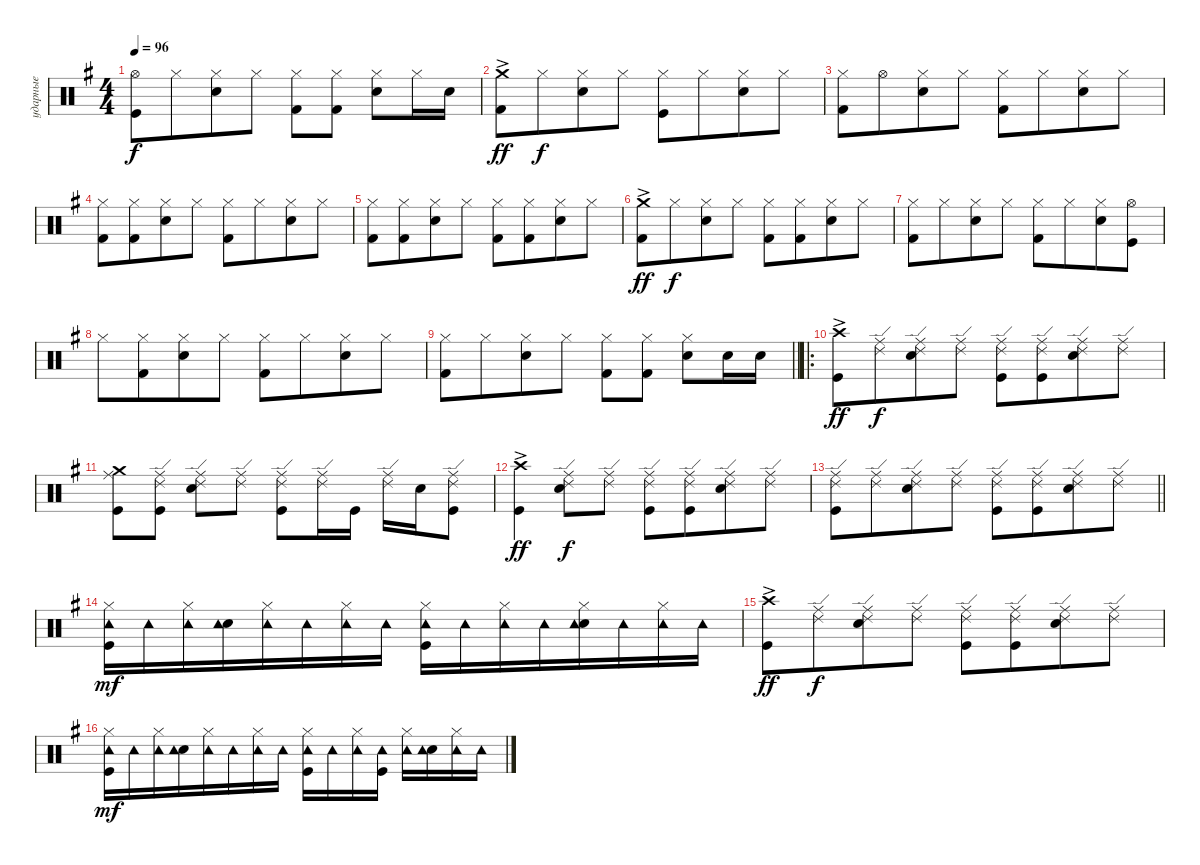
\track ("ударные" "ударные") {instrument percussion}
\staff {score}
\articulation defaults
\ts (4 4)
\tempo 96
\clef neutral
\ks eminor
("Kick (hit)" "Hi-Hat (open)").8{dy f} "Hi-Hat (closed)".8{beam merge} ("Hi-Hat (closed)" "Snare (hit) 2").8 "Hi-Hat (closed)".8 ("Hi-Hat (closed)" "Kick (hit) 2").8 ("Hi-Hat (closed)" "Kick (hit) 2").8 ("Hi-Hat (closed)" "Snare (hit) 2").8 "Hi-Hat (closed)".16 "Snare (hit) 2".16 |
("Crash medium (hit)"{ac} "Kick (hit) 2").8{dy ff} "Hi-Hat (closed)".8{dy f beam merge} ("Hi-Hat (closed)" "Snare (hit) 2").8 "Hi-Hat (closed)".8 ("Kick (hit)" "Hi-Hat (closed)").8 "Hi-Hat (closed)".8{beam merge} ("Snare (hit) 2" "Hi-Hat (closed)").8 "Hi-Hat (closed)".8 |
("Hi-Hat (closed)" "Kick (hit) 2").8 "Hi-Hat (open)".8{beam merge} ("Hi-Hat (closed)" "Snare (hit) 2").8 "Hi-Hat (closed)".8 ("Hi-Hat (closed)" "Kick (hit) 2").8 "Hi-Hat (closed)".8{beam merge} ("Hi-Hat (closed)" "Snare (hit) 2").8 "Hi-Hat (closed)".8 |
("Hi-Hat (closed)" "Kick (hit) 2").8 ("Hi-Hat (closed)" "Kick (hit) 2").8{beam merge} ("Hi-Hat (closed)" "Snare (hit) 2").8 "Hi-Hat (closed)".8 ("Hi-Hat (closed)" "Kick (hit) 2").8 "Hi-Hat (closed)".8{beam merge} ("Hi-Hat (closed)" "Snare (hit) 2").8 "Hi-Hat (closed)".8 |
("Hi-Hat (closed)" "Kick (hit) 2").8 ("Hi-Hat (closed)" "Kick (hit) 2").8{beam merge} ("Hi-Hat (closed)" "Snare (hit) 2").8 "Hi-Hat (closed)".8 ("Hi-Hat (closed)" "Kick (hit) 2").8 ("Hi-Hat (closed)" "Kick (hit) 2").8{beam merge} ("Hi-Hat (closed)" "Snare (hit) 2").8 "Hi-Hat (closed)".8 |
("Crash medium (hit)"{ac} "Kick (hit) 2").8{dy ff} "Hi-Hat (closed)".8{dy f beam merge} ("Hi-Hat (closed)" "Snare (hit) 2").8 "Hi-Hat (closed)".8 ("Hi-Hat (closed)" "Kick (hit) 2").8 ("Hi-Hat (closed)" "Kick (hit) 2").8{beam merge} ("Hi-Hat (closed)" "Snare (hit) 2").8 "Hi-Hat (closed)".8 |
("Hi-Hat (closed)" "Kick (hit) 2").8 "Hi-Hat (closed)".8{beam merge} ("Hi-Hat (closed)" "Snare (hit) 2").8 "Hi-Hat (closed)".8 ("Hi-Hat (closed)" "Kick (hit) 2").8 "Hi-Hat (closed)".8{beam merge} ("Hi-Hat (closed)" "Snare (hit) 2").8 ("Kick (hit)" "Hi-Hat (open)").8 |
"Hi-Hat (closed)".8 ("Hi-Hat (closed)" "Kick (hit) 2").8{beam merge} ("Hi-Hat (closed)" "Snare (hit) 2").8 "Hi-Hat (closed)".8 ("Hi-Hat (closed)" "Kick (hit) 2").8 "Hi-Hat (closed)".8{beam merge} ("Hi-Hat (closed)" "Snare (hit) 2").8 "Hi-Hat (closed)".8 |
\barLineRight lightlight
("Hi-Hat (closed)" "Kick (hit) 2").8 "Hi-Hat (closed)".8{beam merge} ("Hi-Hat (closed)" "Snare (hit) 2").8 "Hi-Hat (closed)".8 ("Hi-Hat (closed)" "Kick (hit) 2").8 ("Hi-Hat (closed)" "Kick (hit) 2").8 ("Hi-Hat (closed)" "Snare (hit) 2").8 "Snare (hit) 2".16 "Snare (hit) 2".16 |
\ro
\section ("" "")
("Kick (hit)" "Crash high (hit)"{ac}).8{dy ff} ("Ride (middle)" "Ride (edge) 2").8{dy f beam merge} ("Snare (hit) 2" "Ride (middle)" "Ride (edge) 2").8 ("Ride (middle)" "Ride (edge) 2").8 ("Kick (hit)" "Ride (middle)" "Ride (edge) 2").8 ("Kick (hit)" "Ride (middle)" "Ride (edge) 2").8{beam merge} ("Snare (hit) 2" "Ride (middle)" "Ride (edge) 2").8 ("Ride (middle)" "Ride (edge) 2").8 |
("Kick (hit)" "Crash medium (hit)" "Ride (middle)").8 ("Kick (hit)" "Ride (middle)" "Ride (edge) 2").8 ("Snare (hit) 2" "Ride (middle)" "Ride (edge) 2").8 ("Ride (middle)" "Ride (edge) 2").8 ("Kick (hit)" "Ride (middle)" "Ride (edge) 2").8 ("Ride (middle)" "Ride (edge) 2").16 "Kick (hit)".16 ("Ride (middle)" "Ride (edge) 2").16 "Snare (hit) 2".16 ("Kick (hit)" "Ride (middle)" "Ride (edge) 2").8 |
("Kick (hit)" "Crash high (hit)"{ac}).4{dy ff} ("Snare (hit) 2" "Ride (middle)" "Ride (edge) 2").8{dy f} ("Ride (middle)" "Ride (edge) 2").8 ("Kick (hit)" "Ride (middle)" "Ride (edge) 2").8 ("Kick (hit)" "Ride (middle)" "Ride (edge) 2").8{beam merge} ("Snare (hit) 2" "Ride (middle)" "Ride (edge) 2").8 ("Ride (middle)" "Ride (edge) 2").8 |
\barLineRight lightlight
("Kick (hit)" "Ride (middle)" "Ride (edge) 2").8 ("Ride (middle)" "Ride (edge) 2").8{beam merge} ("Snare (hit) 2" "Ride (middle)" "Ride (edge) 2").8 ("Ride (middle)" "Ride (edge) 2").8 ("Kick (hit)" "Ride (middle)" "Ride (edge) 2").8 ("Kick (hit)" "Ride (middle)" "Ride (edge) 2").8{beam merge} ("Snare (hit) 2" "Ride (middle)" "Ride (edge) 2").8 ("Ride (middle)" "Ride (edge) 2").8 |
\section ("" "")
("Kick (hit)" "Hi-Hat (closed)" "Tambourine (hit)").16{dy mf} "Tambourine (hit)".16 ("Hi-Hat (closed)" "Tambourine (hit)").16 ("Snare (hit) 2" "Tambourine (hit)").16{beam merge} ("Hi-Hat (closed)" "Tambourine (hit)").16 "Tambourine (hit)".16 ("Hi-Hat (closed)" "Tambourine (hit)").16 "Tambourine (hit)".16 ("Kick (hit)" "Hi-Hat (closed)" "Tambourine (hit)").16 "Tambourine (hit)".16 ("Hi-Hat (closed)" "Tambourine (hit)").16 "Tambourine (hit)".16{beam merge} ("Snare (hit) 2" "Hi-Hat (closed)" "Tambourine (hit)").16 "Tambourine (hit)".16 ("Tambourine (hit)" "Hi-Hat (closed)").16 "Tambourine (hit)".16 |
("Kick (hit)" "Crash high (hit)"{ac}).8{dy ff} ("Ride (middle)" "Ride (edge) 2").8{dy f beam merge} ("Snare (hit) 2" "Ride (middle)" "Ride (edge) 2").8 ("Ride (middle)" "Ride (edge) 2").8 ("Kick (hit)" "Ride (middle)" "Ride (edge) 2").8 ("Kick (hit)" "Ride (middle)" "Ride (edge) 2").8{beam merge} ("Ride (middle)" "Ride (edge) 2" "Snare (hit) 2").8 ("Ride (middle)" "Ride (edge) 2").8 |
("Kick (hit)" "Hi-Hat (closed)" "Tambourine (hit)").16{dy mf} "Tambourine (hit)".16 ("Hi-Hat (closed)" "Tambourine (hit)").16 ("Snare (hit) 2" "Tambourine (hit)").16{beam merge} ("Hi-Hat (closed)" "Tambourine (hit)").16 "Tambourine (hit)".16 ("Hi-Hat (closed)" "Tambourine (hit)").16 "Tambourine (hit)".16 ("Kick (hit)" "Hi-Hat (closed)" "Tambourine (hit)").16 "Tambourine (hit)".16 ("Hi-Hat (closed)" "Tambourine (hit)").16 ("Kick (hit)" "Tambourine (hit)").16 ("Hi-Hat (closed)" "Tambourine (hit)").16 ("Snare (hit) 2" "Tambourine (hit)").16 ("Hi-Hat (closed)" "Tambourine (hit)").16 "Tambourine (hit)".16
